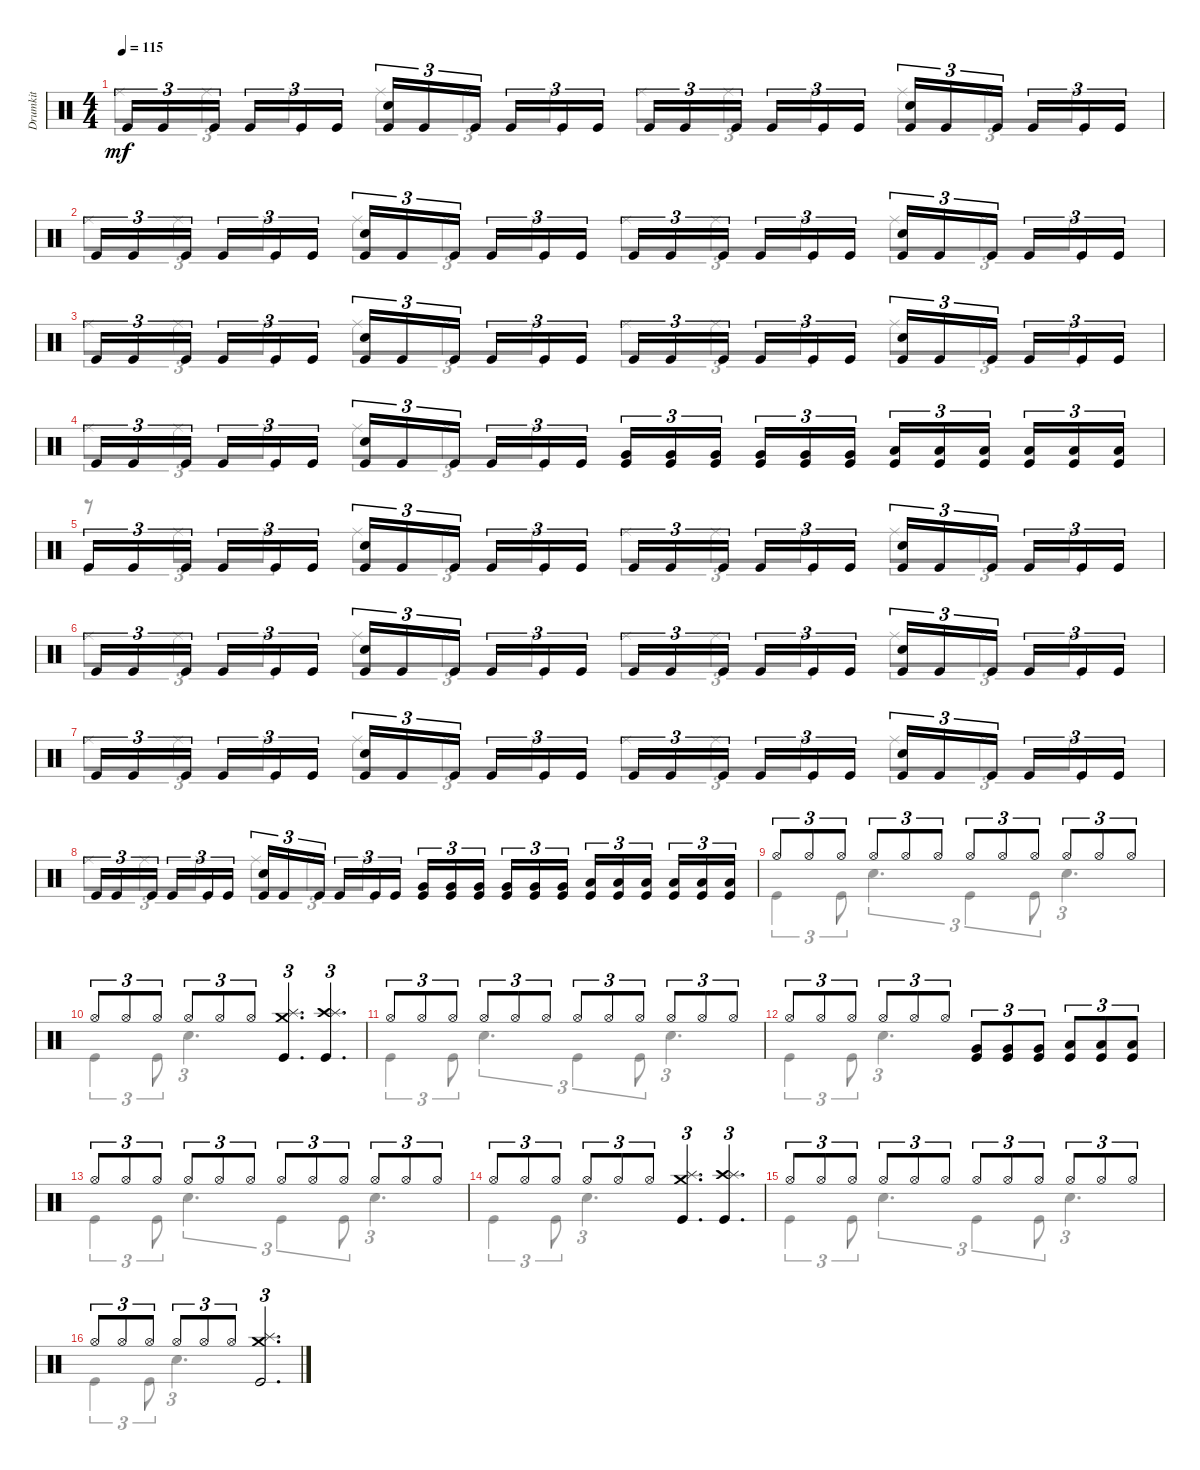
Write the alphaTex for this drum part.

\track ("Drumkit" "Drumkit") {instrument percussion}
\staff {score}
\articulation defaults
\voice
\ts (4 4)
\tempo 115
\clef neutral
\ks c "Kick (hit)".16{tu (3 2) dy mf} "Kick (hit)".16{tu (3 2)} "Kick (hit)".16{tu (3 2)} "Kick (hit)".16{tu (3 2)} "Kick (hit)".16{tu (3 2)} "Kick (hit)".16{tu (3 2)}
("Kick (hit)" "Snare (hit) 2").16{tu (3 2)} "Kick (hit)".16{tu (3 2)} "Kick (hit)".16{tu (3 2)} "Kick (hit)".16{tu (3 2)} "Kick (hit)".16{tu (3 2)} "Kick (hit)".16{tu (3 2)} "Kick (hit)".16{tu (3 2)} "Kick (hit)".16{tu (3 2)} "Kick (hit)".16{tu (3 2)} "Kick (hit)".16{tu (3 2)} "Kick (hit)".16{tu (3 2)} "Kick (hit)".16{tu (3 2)} ("Kick (hit)" "Snare (hit) 2").16{tu (3 2)} "Kick (hit)".16{tu (3 2)} "Kick (hit)".16{tu (3 2)} "Kick (hit)".16{tu (3 2)} "Kick (hit)".16{tu (3 2)} "Kick (hit)".16{tu (3 2)} |
"Kick (hit)".16{tu (3 2)} "Kick (hit)".16{tu (3 2)} "Kick (hit)".16{tu (3 2)} "Kick (hit)".16{tu (3 2)} "Kick (hit)".16{tu (3 2)} "Kick (hit)".16{tu (3 2)} ("Kick (hit)" "Snare (hit) 2").16{tu (3 2)} "Kick (hit)".16{tu (3 2)} "Kick (hit)".16{tu (3 2)} "Kick (hit)".16{tu (3 2)} "Kick (hit)".16{tu (3 2)} "Kick (hit)".16{tu (3 2)} "Kick (hit)".16{tu (3 2)} "Kick (hit)".16{tu (3 2)} "Kick (hit)".16{tu (3 2)} "Kick (hit)".16{tu (3 2)} "Kick (hit)".16{tu (3 2)} "Kick (hit)".16{tu (3 2)} ("Kick (hit)" "Snare (hit) 2").16{tu (3 2)} "Kick (hit)".16{tu (3 2)} "Kick (hit)".16{tu (3 2)} "Kick (hit)".16{tu (3 2)} "Kick (hit)".16{tu (3 2)} "Kick (hit)".16{tu (3 2)} |
"Kick (hit)".16{tu (3 2)} "Kick (hit)".16{tu (3 2)} "Kick (hit)".16{tu (3 2)} "Kick (hit)".16{tu (3 2)} "Kick (hit)".16{tu (3 2)} "Kick (hit)".16{tu (3 2)} ("Kick (hit)" "Snare (hit) 2").16{tu (3 2)} "Kick (hit)".16{tu (3 2)} "Kick (hit)".16{tu (3 2)} "Kick (hit)".16{tu (3 2)} "Kick (hit)".16{tu (3 2)} "Kick (hit)".16{tu (3 2)} "Kick (hit)".16{tu (3 2)} "Kick (hit)".16{tu (3 2)} "Kick (hit)".16{tu (3 2)} "Kick (hit)".16{tu (3 2)} "Kick (hit)".16{tu (3 2)} "Kick (hit)".16{tu (3 2)} ("Kick (hit)" "Snare (hit) 2").16{tu (3 2)} "Kick (hit)".16{tu (3 2)} "Kick (hit)".16{tu (3 2)} "Kick (hit)".16{tu (3 2)} "Kick (hit)".16{tu (3 2)} "Kick (hit)".16{tu (3 2)} |
"Kick (hit)".16{tu (3 2)} "Kick (hit)".16{tu (3 2)} "Kick (hit)".16{tu (3 2)} "Kick (hit)".16{tu (3 2)} "Kick (hit)".16{tu (3 2)} "Kick (hit)".16{tu (3 2)} ("Kick (hit)" "Snare (hit) 2").16{tu (3 2)} "Kick (hit)".16{tu (3 2)} "Kick (hit)".16{tu (3 2)} "Kick (hit)".16{tu (3 2)} "Kick (hit)".16{tu (3 2)} "Kick (hit)".16{tu (3 2)} ("Kick (hit)" "Very Low Tom (hit)").16{tu (3 2)} ("Kick (hit)" "Very Low Tom (hit)").16{tu (3 2)} ("Kick (hit)" "Very Low Tom (hit)").16{tu (3 2)} ("Kick (hit)" "Very Low Tom (hit)").16{tu (3 2)} ("Kick (hit)" "Very Low Tom (hit)").16{tu (3 2)} ("Kick (hit)" "Very Low Tom (hit)").16{tu (3 2)} ("Kick (hit)" "Low Tom (hit)").16{tu (3 2)} ("Kick (hit)" "Low Tom (hit)").16{tu (3 2)} ("Kick (hit)" "Low Tom (hit)").16{tu (3 2)} ("Kick (hit)" "Low Tom (hit)").16{tu (3 2)} ("Kick (hit)" "Low Tom (hit)").16{tu (3 2)} ("Kick (hit)" "Low Tom (hit)").16{tu (3 2)} |
"Kick (hit)".16{tu (3 2)} "Kick (hit)".16{tu (3 2)} "Kick (hit)".16{tu (3 2)} "Kick (hit)".16{tu (3 2)} "Kick (hit)".16{tu (3 2)} "Kick (hit)".16{tu (3 2)} ("Kick (hit)" "Snare (hit) 2").16{tu (3 2)} "Kick (hit)".16{tu (3 2)} "Kick (hit)".16{tu (3 2)} "Kick (hit)".16{tu (3 2)} "Kick (hit)".16{tu (3 2)} "Kick (hit)".16{tu (3 2)} "Kick (hit)".16{tu (3 2)} "Kick (hit)".16{tu (3 2)} "Kick (hit)".16{tu (3 2)} "Kick (hit)".16{tu (3 2)} "Kick (hit)".16{tu (3 2)} "Kick (hit)".16{tu (3 2)} ("Kick (hit)" "Snare (hit) 2").16{tu (3 2)} "Kick (hit)".16{tu (3 2)} "Kick (hit)".16{tu (3 2)} "Kick (hit)".16{tu (3 2)} "Kick (hit)".16{tu (3 2)} "Kick (hit)".16{tu (3 2)} |
"Kick (hit)".16{tu (3 2)} "Kick (hit)".16{tu (3 2)} "Kick (hit)".16{tu (3 2)} "Kick (hit)".16{tu (3 2)} "Kick (hit)".16{tu (3 2)} "Kick (hit)".16{tu (3 2)} ("Kick (hit)" "Snare (hit) 2").16{tu (3 2)} "Kick (hit)".16{tu (3 2)} "Kick (hit)".16{tu (3 2)} "Kick (hit)".16{tu (3 2)} "Kick (hit)".16{tu (3 2)} "Kick (hit)".16{tu (3 2)} "Kick (hit)".16{tu (3 2)} "Kick (hit)".16{tu (3 2)} "Kick (hit)".16{tu (3 2)} "Kick (hit)".16{tu (3 2)} "Kick (hit)".16{tu (3 2)} "Kick (hit)".16{tu (3 2)} ("Kick (hit)" "Snare (hit) 2").16{tu (3 2)} "Kick (hit)".16{tu (3 2)} "Kick (hit)".16{tu (3 2)} "Kick (hit)".16{tu (3 2)} "Kick (hit)".16{tu (3 2)} "Kick (hit)".16{tu (3 2)} |
"Kick (hit)".16{tu (3 2)} "Kick (hit)".16{tu (3 2)} "Kick (hit)".16{tu (3 2)} "Kick (hit)".16{tu (3 2)} "Kick (hit)".16{tu (3 2)} "Kick (hit)".16{tu (3 2)} ("Kick (hit)" "Snare (hit) 2").16{tu (3 2)} "Kick (hit)".16{tu (3 2)} "Kick (hit)".16{tu (3 2)} "Kick (hit)".16{tu (3 2)} "Kick (hit)".16{tu (3 2)} "Kick (hit)".16{tu (3 2)} "Kick (hit)".16{tu (3 2)} "Kick (hit)".16{tu (3 2)} "Kick (hit)".16{tu (3 2)} "Kick (hit)".16{tu (3 2)} "Kick (hit)".16{tu (3 2)} "Kick (hit)".16{tu (3 2)} ("Kick (hit)" "Snare (hit) 2").16{tu (3 2)} "Kick (hit)".16{tu (3 2)} "Kick (hit)".16{tu (3 2)} "Kick (hit)".16{tu (3 2)} "Kick (hit)".16{tu (3 2)} "Kick (hit)".16{tu (3 2)} |
"Kick (hit)".16{tu (3 2)} "Kick (hit)".16{tu (3 2)} "Kick (hit)".16{tu (3 2)} "Kick (hit)".16{tu (3 2)} "Kick (hit)".16{tu (3 2)} "Kick (hit)".16{tu (3 2)} ("Kick (hit)" "Snare (hit) 2").16{tu (3 2)} "Kick (hit)".16{tu (3 2)} "Kick (hit)".16{tu (3 2)} "Kick (hit)".16{tu (3 2)} "Kick (hit)".16{tu (3 2)} "Kick (hit)".16{tu (3 2)} ("Kick (hit)" "Very Low Tom (hit)").16{tu (3 2)} ("Kick (hit)" "Very Low Tom (hit)").16{tu (3 2)} ("Kick (hit)" "Very Low Tom (hit)").16{tu (3 2)} ("Kick (hit)" "Very Low Tom (hit)").16{tu (3 2)} ("Kick (hit)" "Very Low Tom (hit)").16{tu (3 2)} ("Kick (hit)" "Very Low Tom (hit)").16{tu (3 2)} ("Kick (hit)" "Low Tom (hit)").16{tu (3 2)} ("Kick (hit)" "Low Tom (hit)").16{tu (3 2)} ("Kick (hit)" "Low Tom (hit)").16{tu (3 2)} ("Kick (hit)" "Low Tom (hit)").16{tu (3 2)} ("Kick (hit)" "Low Tom (hit)").16{tu (3 2)} ("Kick (hit)" "Low Tom (hit)").16{tu (3 2)} |
"Hi-Hat (open)".8{tu (3 2)} "Hi-Hat (open)".8{tu (3 2)} "Hi-Hat (open)".8{tu (3 2)} "Hi-Hat (open)".8{tu (3 2)} "Hi-Hat (open)".8{tu (3 2)} "Hi-Hat (open)".8{tu (3 2)} "Hi-Hat (open)".8{tu (3 2)} "Hi-Hat (open)".8{tu (3 2)} "Hi-Hat (open)".8{tu (3 2)} "Hi-Hat (open)".8{tu (3 2)} "Hi-Hat (open)".8{tu (3 2)} "Hi-Hat (open)".8{tu (3 2)} |
"Hi-Hat (open)".8{tu (3 2)} "Hi-Hat (open)".8{tu (3 2)} "Hi-Hat (open)".8{tu (3 2)} "Hi-Hat (open)".8{tu (3 2)} "Hi-Hat (open)".8{tu (3 2)} "Hi-Hat (open)".8{tu (3 2)} ("Kick (hit)" "Crash medium (hit)" "Splash (hit)").4{d tu (3 2)} ("Kick (hit)" "Crash high (hit)" "Splash (hit)").4{d tu (3 2)} |
"Hi-Hat (open)".8{tu (3 2)} "Hi-Hat (open)".8{tu (3 2)} "Hi-Hat (open)".8{tu (3 2)} "Hi-Hat (open)".8{tu (3 2)} "Hi-Hat (open)".8{tu (3 2)} "Hi-Hat (open)".8{tu (3 2)} "Hi-Hat (open)".8{tu (3 2)} "Hi-Hat (open)".8{tu (3 2)} "Hi-Hat (open)".8{tu (3 2)} "Hi-Hat (open)".8{tu (3 2)} "Hi-Hat (open)".8{tu (3 2)} "Hi-Hat (open)".8{tu (3 2)} |
"Hi-Hat (open)".8{tu (3 2)} "Hi-Hat (open)".8{tu (3 2)} "Hi-Hat (open)".8{tu (3 2)} "Hi-Hat (open)".8{tu (3 2)} "Hi-Hat (open)".8{tu (3 2)} "Hi-Hat (open)".8{tu (3 2)} ("Kick (hit)" "Very Low Tom (hit)").8{tu (3 2)} ("Kick (hit)" "Very Low Tom (hit)").8{tu (3 2)} ("Kick (hit)" "Very Low Tom (hit)").8{tu (3 2)} ("Kick (hit)" "Low Tom (hit)").8{tu (3 2)} ("Kick (hit)" "Low Tom (hit)").8{tu (3 2)} ("Kick (hit)" "Low Tom (hit)").8{tu (3 2)} |
"Hi-Hat (open)".8{tu (3 2)} "Hi-Hat (open)".8{tu (3 2)} "Hi-Hat (open)".8{tu (3 2)} "Hi-Hat (open)".8{tu (3 2)} "Hi-Hat (open)".8{tu (3 2)} "Hi-Hat (open)".8{tu (3 2)} "Hi-Hat (open)".8{tu (3 2)} "Hi-Hat (open)".8{tu (3 2)} "Hi-Hat (open)".8{tu (3 2)} "Hi-Hat (open)".8{tu (3 2)} "Hi-Hat (open)".8{tu (3 2)} "Hi-Hat (open)".8{tu (3 2)} |
"Hi-Hat (open)".8{tu (3 2)} "Hi-Hat (open)".8{tu (3 2)} "Hi-Hat (open)".8{tu (3 2)} "Hi-Hat (open)".8{tu (3 2)} "Hi-Hat (open)".8{tu (3 2)} "Hi-Hat (open)".8{tu (3 2)} ("Kick (hit)" "Crash medium (hit)" "Splash (hit)").4{d tu (3 2)} ("Kick (hit)" "Crash high (hit)" "Splash (hit)").4{d tu (3 2)} |
"Hi-Hat (open)".8{tu (3 2)} "Hi-Hat (open)".8{tu (3 2)} "Hi-Hat (open)".8{tu (3 2)} "Hi-Hat (open)".8{tu (3 2)} "Hi-Hat (open)".8{tu (3 2)} "Hi-Hat (open)".8{tu (3 2)} "Hi-Hat (open)".8{tu (3 2)} "Hi-Hat (open)".8{tu (3 2)} "Hi-Hat (open)".8{tu (3 2)} "Hi-Hat (open)".8{tu (3 2)} "Hi-Hat (open)".8{tu (3 2)} "Hi-Hat (open)".8{tu (3 2)} |
"Hi-Hat (open)".8{tu (3 2)} "Hi-Hat (open)".8{tu (3 2)} "Hi-Hat (open)".8{tu (3 2)} "Hi-Hat (open)".8{tu (3 2)} "Hi-Hat (open)".8{tu (3 2)} "Hi-Hat (open)".8{tu (3 2)} ("Kick (hit)" "Splash (hit)" "Crash medium (hit)").2{d tu (3 2)}
\voice
\clef neutral
\ottava regular
\simile none
\ks c "Ride (middle)".8{tu (3 2) dy mf} "Ride (middle)".8{tu (3 2)} "Ride (middle)".8{tu (3 2)} "Ride (middle)".8{tu (3 2)} "Ride (middle)".8{tu (3 2)} "Ride (middle)".8{tu (3 2)} "Ride (middle)".8{tu (3 2)} "Ride (middle)".8{tu (3 2)} "Ride (middle)".8{tu (3 2)} "Ride (middle)".8{tu (3 2)} "Ride (middle)".8{tu (3 2)} "Ride (middle)".8{tu (3 2)}
|
"Ride (middle)".8{tu (3 2)} "Ride (middle)".8{tu (3 2)} "Ride (middle)".8{tu (3 2)} "Ride (middle)".8{tu (3 2)} "Ride (middle)".8{tu (3 2)} "Ride (middle)".8{tu (3 2)} "Ride (middle)".8{tu (3 2)} "Ride (middle)".8{tu (3 2)} "Ride (middle)".8{tu (3 2)} "Ride (middle)".8{tu (3 2)} "Ride (middle)".8{tu (3 2)} "Ride (middle)".8{tu (3 2)} |
"Ride (middle)".8{tu (3 2)} "Ride (middle)".8{tu (3 2)} "Ride (middle)".8{tu (3 2)} "Ride (middle)".8{tu (3 2)} "Ride (middle)".8{tu (3 2)} "Ride (middle)".8{tu (3 2)} "Ride (middle)".8{tu (3 2)} "Ride (middle)".8{tu (3 2)} "Ride (middle)".8{tu (3 2)} "Ride (middle)".8{tu (3 2)} "Ride (middle)".8{tu (3 2)} "Ride (middle)".8{tu (3 2)} |
"Ride (middle)".8{tu (3 2)} "Ride (middle)".8{tu (3 2)} "Ride (middle)".8{tu (3 2)} "Ride (middle)".8{tu (3 2)} "Ride (middle)".8{tu (3 2)} "Ride (middle)".8{tu (3 2)} |
r.8{tu (3 2)} "Ride (middle)".8{tu (3 2)} "Ride (middle)".8{tu (3 2)} "Ride (middle)".8{tu (3 2)} "Ride (middle)".8{tu (3 2)} "Ride (middle)".8{tu (3 2)} "Ride (middle)".8{tu (3 2)} "Ride (middle)".8{tu (3 2)} "Ride (middle)".8{tu (3 2)} "Ride (middle)".8{tu (3 2)} "Ride (middle)".8{tu (3 2)} "Ride (middle)".8{tu (3 2)} |
"Ride (middle)".8{tu (3 2)} "Ride (middle)".8{tu (3 2)} "Ride (middle)".8{tu (3 2)} "Ride (middle)".8{tu (3 2)} "Ride (middle)".8{tu (3 2)} "Ride (middle)".8{tu (3 2)} "Ride (middle)".8{tu (3 2)} "Ride (middle)".8{tu (3 2)} "Ride (middle)".8{tu (3 2)} "Ride (middle)".8{tu (3 2)} "Ride (middle)".8{tu (3 2)} "Ride (middle)".8{tu (3 2)} |
"Ride (middle)".8{tu (3 2)} "Ride (middle)".8{tu (3 2)} "Ride (middle)".8{tu (3 2)} "Ride (middle)".8{tu (3 2)} "Ride (middle)".8{tu (3 2)} "Ride (middle)".8{tu (3 2)} "Ride (middle)".8{tu (3 2)} "Ride (middle)".8{tu (3 2)} "Ride (middle)".8{tu (3 2)} "Ride (middle)".8{tu (3 2)} "Ride (middle)".8{tu (3 2)} "Ride (middle)".8{tu (3 2)} |
"Ride (middle)".8{tu (3 2)} "Ride (middle)".8{tu (3 2)} "Ride (middle)".8{tu (3 2)} "Ride (middle)".8{tu (3 2)} "Ride (middle)".8{tu (3 2)} "Ride (middle)".8{tu (3 2)} |
"Kick (hit)".4{tu (3 2)} "Kick (hit)".8{tu (3 2)} "Snare (hit) 2".4{d tu (3 2)} "Kick (hit)".4{tu (3 2)} "Kick (hit)".8{tu (3 2)} "Snare (hit) 2".4{d tu (3 2)} |
"Kick (hit)".4{tu (3 2)} "Kick (hit)".8{tu (3 2)} "Snare (hit) 2".4{d tu (3 2)} |
"Kick (hit)".4{tu (3 2)} "Kick (hit)".8{tu (3 2)} "Snare (hit) 2".4{d tu (3 2)} "Kick (hit)".4{tu (3 2)} "Kick (hit)".8{tu (3 2)} "Snare (hit) 2".4{d tu (3 2)} |
"Kick (hit)".4{tu (3 2)} "Kick (hit)".8{tu (3 2)} "Snare (hit) 2".4{d tu (3 2)} |
"Kick (hit)".4{tu (3 2)} "Kick (hit)".8{tu (3 2)} "Snare (hit) 2".4{d tu (3 2)} "Kick (hit)".4{tu (3 2)} "Kick (hit)".8{tu (3 2)} "Snare (hit) 2".4{d tu (3 2)} |
"Kick (hit)".4{tu (3 2)} "Kick (hit)".8{tu (3 2)} "Snare (hit) 2".4{d tu (3 2)} |
"Kick (hit)".4{tu (3 2)} "Kick (hit)".8{tu (3 2)} "Snare (hit) 2".4{d tu (3 2)} "Kick (hit)".4{tu (3 2)} "Kick (hit)".8{tu (3 2)} "Snare (hit) 2".4{d tu (3 2)} |
"Kick (hit)".4{tu (3 2)} "Kick (hit)".8{tu (3 2)} "Snare (hit) 2".4{d tu (3 2)}
